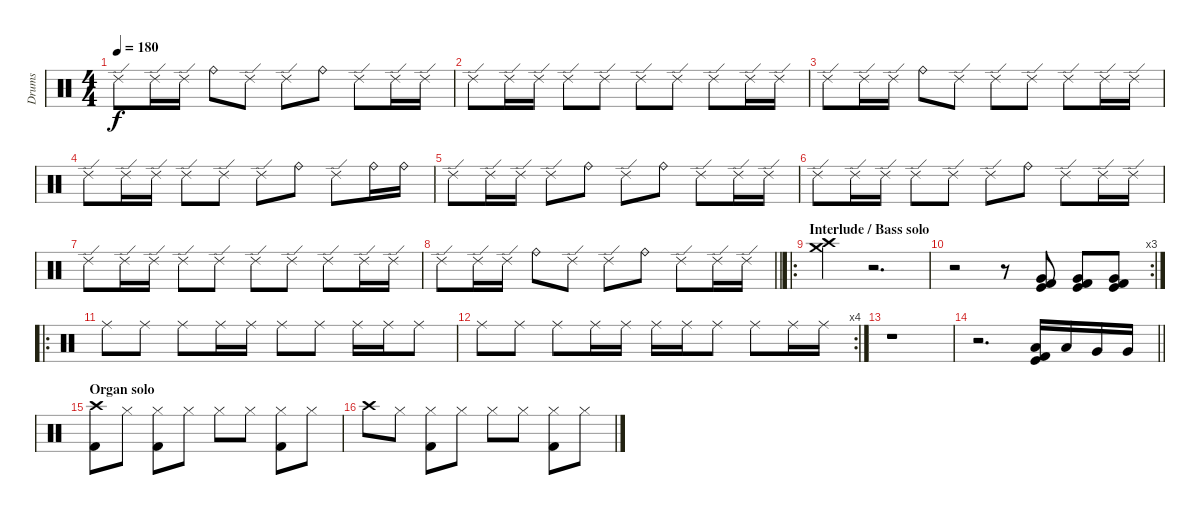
\track ("Drums" "Drums") {instrument percussion}
\staff {score}
\articulation defaults
\ts (4 4)
\tempo 180
\clef neutral
\ks c "Ride (edge) 2".8{dy f} "Ride (edge) 2".16 "Ride (edge) 2".16 "Ride (bell)".8 "Ride (edge) 2".8 "Ride (edge) 2".8 "Ride (bell)".8 "Ride (edge) 2".8 "Ride (edge) 2".16 "Ride (edge) 2".16
|
"Ride (edge) 2".8 "Ride (edge) 2".16 "Ride (edge) 2".16 "Ride (edge) 2".8 "Ride (edge) 2".8 "Ride (edge) 2".8 "Ride (edge) 2".8 "Ride (edge) 2".8 "Ride (edge) 2".16 "Ride (edge) 2".16 |
"Ride (edge) 2".8 "Ride (edge) 2".16 "Ride (edge) 2".16 "Ride (bell)".8 "Ride (edge) 2".8 "Ride (edge) 2".8 "Ride (edge) 2".8 "Ride (edge) 2".8 "Ride (edge) 2".16 "Ride (edge) 2".16 |
"Ride (edge) 2".8 "Ride (edge) 2".16 "Ride (edge) 2".16 "Ride (edge) 2".8 "Ride (edge) 2".8 "Ride (edge) 2".8 "Ride (bell)".8 "Ride (edge) 2".8 "Ride (bell)".16 "Ride (bell)".16 |
"Ride (edge) 2".8 "Ride (edge) 2".16 "Ride (edge) 2".16 "Ride (edge) 2".8 "Ride (bell)".8 "Ride (edge) 2".8 "Ride (bell)".8 "Ride (edge) 2".8 "Ride (edge) 2".16 "Ride (edge) 2".16 |
"Ride (edge) 2".8 "Ride (edge) 2".16 "Ride (edge) 2".16 "Ride (edge) 2".8 "Ride (edge) 2".8 "Ride (edge) 2".8 "Ride (bell)".8 "Ride (edge) 2".8 "Ride (edge) 2".16 "Ride (edge) 2".16 |
"Ride (edge) 2".8 "Ride (edge) 2".16 "Ride (edge) 2".16 "Ride (edge) 2".8 "Ride (edge) 2".8 "Ride (edge) 2".8 "Ride (edge) 2".8 "Ride (edge) 2".8 "Ride (edge) 2".16 "Ride (edge) 2".16 |
\barLineRight lightlight "Ride (edge) 2".8 "Ride (edge) 2".16 "Ride (edge) 2".16 "Ride (bell)".8 "Ride (edge) 2".8 "Ride (edge) 2".8 "Ride (bell)".8 "Ride (edge) 2".8 "Ride (edge) 2".16 "Ride (edge) 2".16
|
\ro
\section ("" "Interlude / Bass solo")
("Crash high (hit)" "Crash medium (hit)").4 r.2{d} |
\rc 3
r.2 r.8 ("Very Low Tom (hit)" "Kick (hit) 2" "Kick (hit)").8 ("Very Low Tom (hit)" "Kick (hit) 2" "Kick (hit)").8 ("Very Low Tom (hit)" "Kick (hit) 2" "Kick (hit)").8 |
\ro "Ride (middle)".8 "Ride (middle)".8 "Ride (middle)".8 "Ride (middle)".16 "Ride (middle)".16 "Ride (middle)".8 "Ride (middle)".8 "Ride (middle)".16 "Ride (middle)".16 "Ride (middle)".8
|
\rc 4 "Ride (middle)".8 "Ride (middle)".8 "Ride (middle)".8 "Ride (middle)".16 "Ride (middle)".16 "Ride (middle)".16 "Ride (middle)".16 "Ride (middle)".8 "Ride (middle)".8 "Ride (middle)".16 "Ride (middle)".16
|
r.1 |
\barLineRight lightlight
r.2{d} ("Low Tom (hit)" "Kick (hit) 2" "Kick (hit)").16 "Low Tom (hit)".16 "Very Low Tom (hit)".16 "Very Low Tom (hit)".16 |
\section ("" "Organ solo")
("Crash high (hit)" "Kick (hit) 2").8 "Hi-Hat (closed)".8 ("Hi-Hat (closed)" "Kick (hit) 2").8 "Hi-Hat (closed)".8 "Hi-Hat (closed)".8 "Hi-Hat (closed)".8 ("Hi-Hat (closed)" "Kick (hit) 2").8 "Hi-Hat (closed)".8 |
"Crash high (hit)".8 "Hi-Hat (closed)".8 ("Hi-Hat (closed)" "Kick (hit) 2").8 "Hi-Hat (closed)".8 "Hi-Hat (closed)".8 "Hi-Hat (closed)".8 ("Hi-Hat (closed)" "Kick (hit) 2").8 "Hi-Hat (closed)".8
